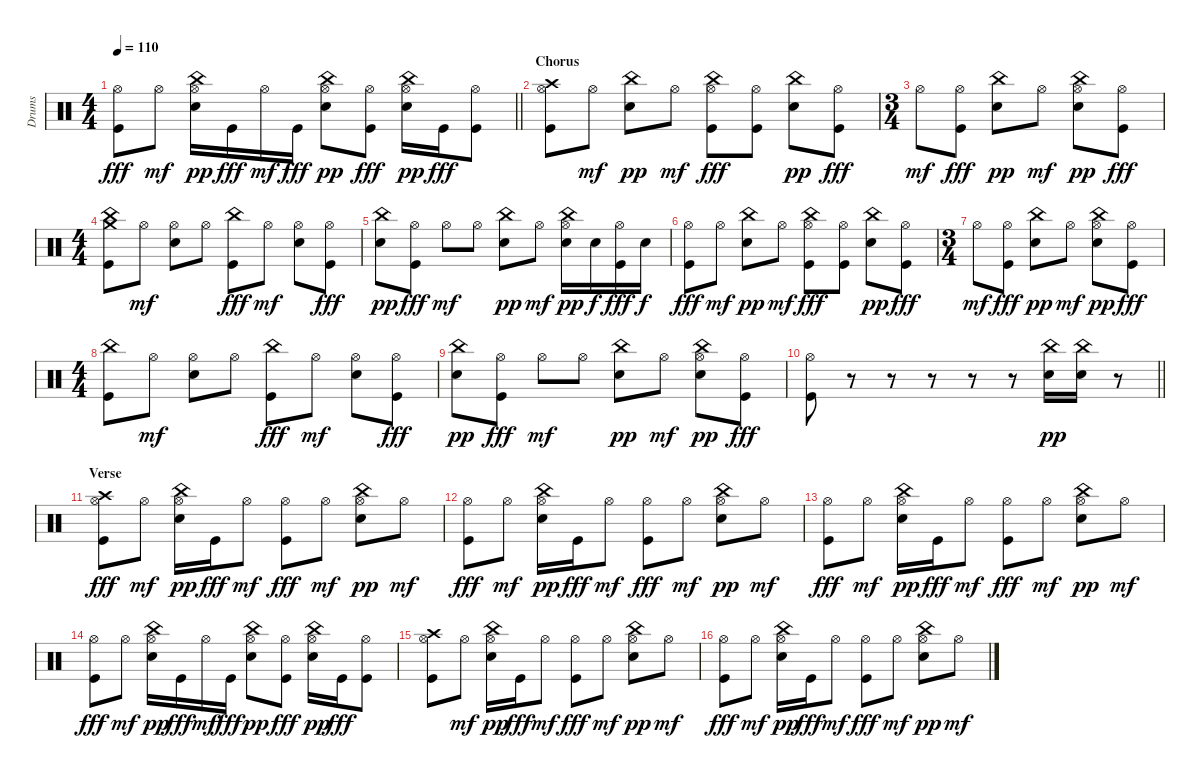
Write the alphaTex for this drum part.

\track ("Drums" "Drums") {instrument percussion}
\staff {score}
\articulation defaults
\ts (4 4)
\tempo 110
\clef neutral
\barLineRight lightlight
\ks c
("Hi-Hat (open)" "Kick (hit)").8{dy fff} "Hi-Hat (open)".8{dy mf} ("Hi-Hat (open)" "China (hit)" "Electric Snare (hit)").16{dy pp} "Kick (hit)".16{dy fff} "Hi-Hat (open)".16{dy mf} "Kick (hit)".16{dy fff} ("Hi-Hat (open)" "China (hit)" "Electric Snare (hit)").8{dy pp} ("Hi-Hat (open)" "Kick (hit)").8{dy fff} ("Hi-Hat (open)" "China (hit)" "Electric Snare (hit)").16{dy pp} "Kick (hit)".16{dy fff} ("Hi-Hat (open)" "Kick (hit)").8 |
\section ("" "Chorus")
("Crash high (hit)" "Hi-Hat (open)" "Kick (hit)").8 "Hi-Hat (open)".8{dy mf} ("China (hit)" "Electric Snare (hit)").8{dy pp} "Hi-Hat (open)".8{dy mf} ("Hi-Hat (open)" "China (hit)" "Kick (hit)").8{dy fff} ("Hi-Hat (open)" "Kick (hit)").8 ("China (hit)" "Electric Snare (hit)").8{dy pp} ("Hi-Hat (open)" "Kick (hit)").8{dy fff} |
\ts (3 4)
"Hi-Hat (open)".8{dy mf} ("Hi-Hat (open)" "Kick (hit)").8{dy fff} ("China (hit)" "Electric Snare (hit)").8{dy pp} "Hi-Hat (open)".8{dy mf} ("Hi-Hat (open)" "China (hit)" "Electric Snare (hit)").8{dy pp} ("Hi-Hat (open)" "Kick (hit)").8{dy fff} |
\ts (4 4)
("Crash medium (hit)" "China (hit)" "Kick (hit)").8 "Hi-Hat (open)".8{dy mf} ("Hi-Hat (open)" "Electric Snare (hit)").8 "Hi-Hat (open)".8 ("China (hit)" "Kick (hit)").8{dy fff} "Hi-Hat (open)".8{dy mf} ("Hi-Hat (open)" "Electric Snare (hit)").8 ("Hi-Hat (open)" "Kick (hit)").8{dy fff} |
("China (hit)" "Electric Snare (hit)").8{dy pp} ("Hi-Hat (open)" "Kick (hit)").8{dy fff} "Hi-Hat (open)".8{dy mf} "Hi-Hat (open)".8 ("China (hit)" "Electric Snare (hit)").8{dy pp} "Hi-Hat (open)".8{dy mf} ("Hi-Hat (open)" "China (hit)" "Electric Snare (hit)").16{dy pp} "Electric Snare (hit)".16{dy f} ("Hi-Hat (open)" "Kick (hit)").16{dy fff} "Electric Snare (hit)".16{dy f} |
("Hi-Hat (open)" "Kick (hit)").8{dy fff} "Hi-Hat (open)".8{dy mf} ("China (hit)" "Electric Snare (hit)").8{dy pp} "Hi-Hat (open)".8{dy mf} ("Hi-Hat (open)" "China (hit)" "Kick (hit)").8{dy fff} ("Hi-Hat (open)" "Kick (hit)").8 ("China (hit)" "Electric Snare (hit)").8{dy pp} ("Hi-Hat (open)" "Kick (hit)").8{dy fff} |
\ts (3 4)
"Hi-Hat (open)".8{dy mf} ("Hi-Hat (open)" "Kick (hit)").8{dy fff} ("China (hit)" "Electric Snare (hit)").8{dy pp} "Hi-Hat (open)".8{dy mf} ("Hi-Hat (open)" "China (hit)" "Electric Snare (hit)").8{dy pp} ("Hi-Hat (open)" "Kick (hit)").8{dy fff} |
\ts (4 4)
("China (hit)" "Kick (hit)").8 "Hi-Hat (open)".8{dy mf} ("Hi-Hat (open)" "Electric Snare (hit)").8 "Hi-Hat (open)".8 ("China (hit)" "Kick (hit)").8{dy fff} "Hi-Hat (open)".8{dy mf} ("Hi-Hat (open)" "Electric Snare (hit)").8 ("Hi-Hat (open)" "Kick (hit)").8{dy fff} |
("China (hit)" "Electric Snare (hit)").8{dy pp} ("Hi-Hat (open)" "Kick (hit)").8{dy fff} "Hi-Hat (open)".8{dy mf} "Hi-Hat (open)".8 ("China (hit)" "Electric Snare (hit)").8{dy pp} "Hi-Hat (open)".8{dy mf} ("Hi-Hat (open)" "China (hit)" "Electric Snare (hit)").8{dy pp} ("Hi-Hat (open)" "Kick (hit)").8{dy fff} |
\barLineRight lightlight
("Hi-Hat (open)" "Kick (hit)").8 r.8 r.8 r.8 r.8 r.8 ("China (hit)" "Electric Snare (hit)").16{dy pp} ("China (hit)" "Electric Snare (hit)").16 r.8 |
\section ("" "Verse")
("Crash high (hit)" "Hi-Hat (open)" "Kick (hit)").8{dy fff} "Hi-Hat (open)".8{dy mf} ("Hi-Hat (open)" "China (hit)" "Electric Snare (hit)").16{dy pp} "Kick (hit)".16{dy fff} "Hi-Hat (open)".8{dy mf} ("Hi-Hat (open)" "Kick (hit)").8{dy fff} "Hi-Hat (open)".8{dy mf} ("Hi-Hat (open)" "China (hit)" "Electric Snare (hit)").8{dy pp} "Hi-Hat (open)".8{dy mf} |
("Hi-Hat (open)" "Kick (hit)").8{dy fff} "Hi-Hat (open)".8{dy mf} ("Hi-Hat (open)" "China (hit)" "Electric Snare (hit)").16{dy pp} "Kick (hit)".16{dy fff} "Hi-Hat (open)".8{dy mf} ("Hi-Hat (open)" "Kick (hit)").8{dy fff} "Hi-Hat (open)".8{dy mf} ("Hi-Hat (open)" "China (hit)" "Electric Snare (hit)").8{dy pp} "Hi-Hat (open)".8{dy mf} |
("Hi-Hat (open)" "Kick (hit)").8{dy fff} "Hi-Hat (open)".8{dy mf} ("Hi-Hat (open)" "China (hit)" "Electric Snare (hit)").16{dy pp} "Kick (hit)".16{dy fff} "Hi-Hat (open)".8{dy mf} ("Hi-Hat (open)" "Kick (hit)").8{dy fff} "Hi-Hat (open)".8{dy mf} ("Hi-Hat (open)" "China (hit)" "Electric Snare (hit)").8{dy pp} "Hi-Hat (open)".8{dy mf} |
("Hi-Hat (open)" "Kick (hit)").8{dy fff} "Hi-Hat (open)".8{dy mf} ("Hi-Hat (open)" "China (hit)" "Electric Snare (hit)").16{dy pp} "Kick (hit)".16{dy fff} "Hi-Hat (open)".16{dy mf} "Kick (hit)".16{dy fff} ("Hi-Hat (open)" "China (hit)" "Electric Snare (hit)").8{dy pp} ("Hi-Hat (open)" "Kick (hit)").8{dy fff} ("Hi-Hat (open)" "China (hit)" "Electric Snare (hit)").16{dy pp} "Kick (hit)".16{dy fff} ("Hi-Hat (open)" "Kick (hit)").8 |
("Crash high (hit)" "Hi-Hat (open)" "Kick (hit)").8 "Hi-Hat (open)".8{dy mf} ("Hi-Hat (open)" "China (hit)" "Electric Snare (hit)").16{dy pp} "Kick (hit)".16{dy fff} "Hi-Hat (open)".8{dy mf} ("Hi-Hat (open)" "Kick (hit)").8{dy fff} "Hi-Hat (open)".8{dy mf} ("Hi-Hat (open)" "China (hit)" "Electric Snare (hit)").8{dy pp} "Hi-Hat (open)".8{dy mf} |
("Hi-Hat (open)" "Kick (hit)").8{dy fff} "Hi-Hat (open)".8{dy mf} ("Hi-Hat (open)" "China (hit)" "Electric Snare (hit)").16{dy pp} "Kick (hit)".16{dy fff} "Hi-Hat (open)".8{dy mf} ("Hi-Hat (open)" "Kick (hit)").8{dy fff} "Hi-Hat (open)".8{dy mf} ("Hi-Hat (open)" "China (hit)" "Electric Snare (hit)").8{dy pp} "Hi-Hat (open)".8{dy mf}
